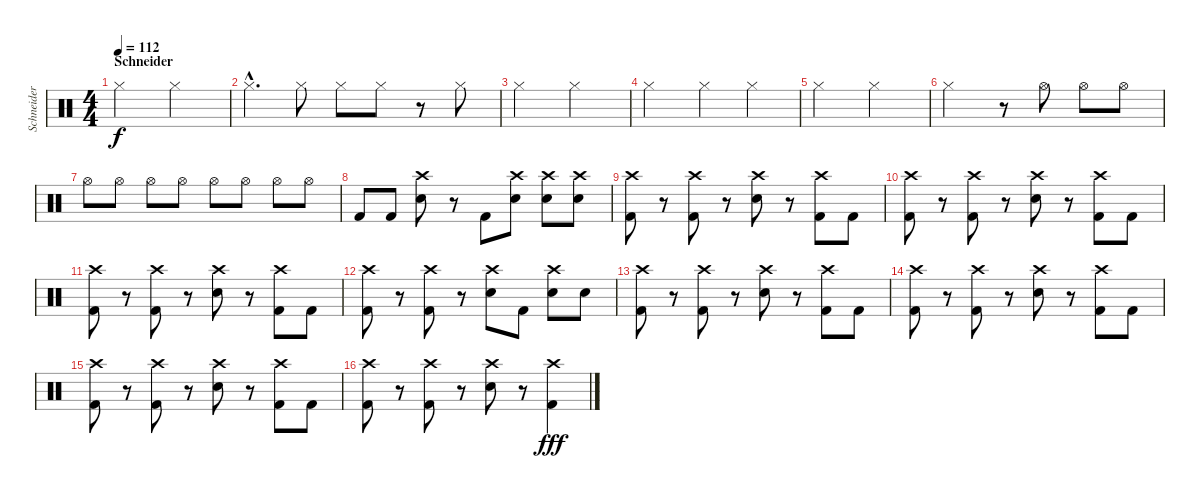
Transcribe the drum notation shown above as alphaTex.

\track ("Schneider - Drums" "Schneider ") {instrument percussion}
\staff {score}
\articulation defaults
\ts (4 4)
\section ("" "Schneider")
\tempo 112
\clef neutral
\ks c "Hi-Hat (closed)".2{dy f} "Hi-Hat (closed)".2
|
"Hi-Hat (closed)"{hac}.4{d} "Hi-Hat (closed)".8 "Hi-Hat (closed)".8 "Hi-Hat (closed)".8 r.8 "Hi-Hat (closed)".8 |
"Hi-Hat (closed)".2 "Hi-Hat (closed)".2 |
"Hi-Hat (closed)".2 "Hi-Hat (closed)".4 "Hi-Hat (closed)".4 |
"Hi-Hat (closed)".2 "Hi-Hat (closed)".2 |
"Hi-Hat (closed)".2 r.8{volume 4} "Hi-Hat (open)".8{volume 13} "Hi-Hat (open)".8 "Hi-Hat (open)".8 |
"Hi-Hat (open)".8 "Hi-Hat (open)".8 "Hi-Hat (open)".8 "Hi-Hat (open)".8 "Hi-Hat (open)".8 "Hi-Hat (open)".8 "Hi-Hat (open)".8 "Hi-Hat (open)".8 |
"Kick (hit) 2".8{volume 16} "Kick (hit) 2".8 ("Crash high (hit)" "Snare (hit) 2").8 r.8 "Kick (hit) 2".8 ("Crash high (hit)" "Snare (hit) 2").8 ("Crash high (hit)" "Snare (hit) 2").8 ("Crash high (hit)" "Snare (hit) 2").8 |
("Crash high (hit)" "Kick (hit) 2").8 r.8 ("Crash high (hit)" "Kick (hit) 2").8 r.8 ("Crash high (hit)" "Snare (hit) 2").8 r.8 ("Crash high (hit)" "Kick (hit) 2").8 "Kick (hit) 2".8 |
("Crash high (hit)" "Kick (hit) 2").8 r.8 ("Crash high (hit)" "Kick (hit) 2").8 r.8 ("Crash high (hit)" "Snare (hit) 2").8 r.8 ("Crash high (hit)" "Kick (hit) 2").8 "Kick (hit) 2".8 |
("Crash high (hit)" "Kick (hit) 2").8 r.8 ("Crash high (hit)" "Kick (hit) 2").8 r.8 ("Crash high (hit)" "Snare (hit) 2").8 r.8 ("Crash high (hit)" "Kick (hit) 2").8 "Kick (hit) 2".8 |
("Crash high (hit)" "Kick (hit) 2").8 r.8 ("Crash high (hit)" "Kick (hit) 2").8 r.8 ("Crash high (hit)" "Snare (hit) 2").8 "Kick (hit) 2".8 ("Crash high (hit)" "Snare (hit) 2").8 "Snare (hit) 2".8 |
("Crash high (hit)" "Kick (hit) 2").8 r.8 ("Crash high (hit)" "Kick (hit) 2").8 r.8 ("Crash high (hit)" "Snare (hit) 2").8 r.8 ("Crash high (hit)" "Kick (hit) 2").8 "Kick (hit) 2".8 |
("Crash high (hit)" "Kick (hit) 2").8 r.8 ("Crash high (hit)" "Kick (hit) 2").8 r.8 ("Crash high (hit)" "Snare (hit) 2").8 r.8 ("Crash high (hit)" "Kick (hit) 2").8 "Kick (hit) 2".8 |
("Crash high (hit)" "Kick (hit) 2").8 r.8 ("Crash high (hit)" "Kick (hit) 2").8 r.8 ("Crash high (hit)" "Snare (hit) 2").8 r.8 ("Crash high (hit)" "Kick (hit) 2").8 "Kick (hit) 2".8 |
("Crash high (hit)" "Kick (hit) 2").8 r.8 ("Crash high (hit)" "Kick (hit) 2").8 r.8 ("Crash high (hit)" "Snare (hit) 2").8 r.8 ("Crash high (hit)" "Kick (hit) 2").4{dy fff}
